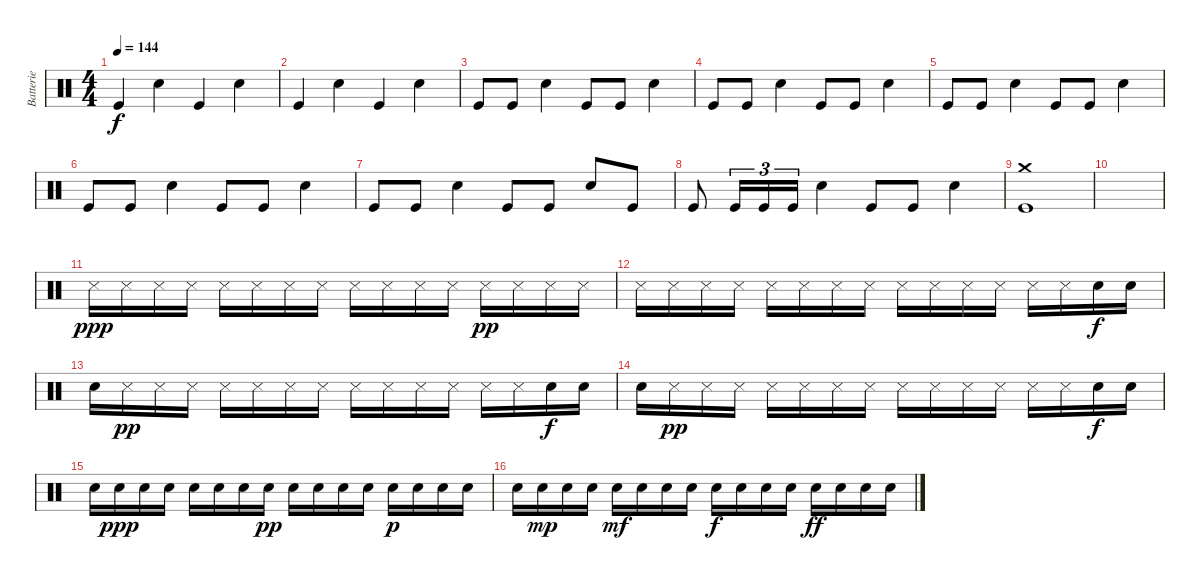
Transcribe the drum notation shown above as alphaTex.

\track ("Batterie" "Batterie") {instrument percussion}
\staff {score}
\articulation defaults
\ts (4 4)
\tempo 144
\clef neutral
\ks c "Kick (hit)".4{dy f} "Electric Snare (hit)".4 "Kick (hit)".4 "Electric Snare (hit)".4
|
"Kick (hit)".4 "Electric Snare (hit)".4 "Kick (hit)".4 "Electric Snare (hit)".4 |
"Kick (hit)".8 "Kick (hit)".8 "Electric Snare (hit)".4 "Kick (hit)".8 "Kick (hit)".8 "Electric Snare (hit)".4 |
"Kick (hit)".8 "Kick (hit)".8 "Electric Snare (hit)".4 "Kick (hit)".8 "Kick (hit)".8 "Electric Snare (hit)".4 |
"Kick (hit)".8 "Kick (hit)".8 "Electric Snare (hit)".4 "Kick (hit)".8 "Kick (hit)".8 "Electric Snare (hit)".4 |
"Kick (hit)".8 "Kick (hit)".8 "Electric Snare (hit)".4 "Kick (hit)".8 "Kick (hit)".8 "Electric Snare (hit)".4 |
"Kick (hit)".8 "Kick (hit)".8 "Electric Snare (hit)".4 "Kick (hit)".8 "Kick (hit)".8 "Electric Snare (hit)".8 "Kick (hit)".8 |
"Kick (hit)".8 "Kick (hit)".16{tu (3 2)} "Kick (hit)".16{tu (3 2)} "Kick (hit)".16{tu (3 2)} "Electric Snare (hit)".4 "Kick (hit)".8 "Kick (hit)".8 "Electric Snare (hit)".4 |
("Crash medium (hit)" "Kick (hit)").1 |
|
"Snare (side stick) 3".16{dy ppp} "Snare (side stick) 3".16 "Snare (side stick) 3".16 "Snare (side stick) 3".16 "Snare (side stick) 3".16 "Snare (side stick) 3".16 "Snare (side stick) 3".16 "Snare (side stick) 3".16 "Snare (side stick) 3".16 "Snare (side stick) 3".16 "Snare (side stick) 3".16 "Snare (side stick) 3".16 "Snare (side stick) 3".16{dy pp} "Snare (side stick) 3".16 "Snare (side stick) 3".16 "Snare (side stick) 3".16 |
"Snare (side stick) 3".16 "Snare (side stick) 3".16 "Snare (side stick) 3".16 "Snare (side stick) 3".16 "Snare (side stick) 3".16 "Snare (side stick) 3".16 "Snare (side stick) 3".16 "Snare (side stick) 3".16 "Snare (side stick) 3".16 "Snare (side stick) 3".16 "Snare (side stick) 3".16 "Snare (side stick) 3".16 "Snare (side stick) 3".16 "Snare (side stick) 3".16 "Electric Snare (hit)".16{dy f} "Electric Snare (hit)".16 |
"Electric Snare (hit)".16 "Snare (side stick) 3".16{dy pp} "Snare (side stick) 3".16 "Snare (side stick) 3".16 "Snare (side stick) 3".16 "Snare (side stick) 3".16 "Snare (side stick) 3".16 "Snare (side stick) 3".16 "Snare (side stick) 3".16 "Snare (side stick) 3".16 "Snare (side stick) 3".16 "Snare (side stick) 3".16 "Snare (side stick) 3".16 "Snare (side stick) 3".16 "Electric Snare (hit)".16{dy f} "Electric Snare (hit)".16 |
"Electric Snare (hit)".16 "Snare (side stick) 3".16{dy pp} "Snare (side stick) 3".16 "Snare (side stick) 3".16 "Snare (side stick) 3".16 "Snare (side stick) 3".16 "Snare (side stick) 3".16 "Snare (side stick) 3".16 "Snare (side stick) 3".16 "Snare (side stick) 3".16 "Snare (side stick) 3".16 "Snare (side stick) 3".16 "Snare (side stick) 3".16 "Snare (side stick) 3".16 "Electric Snare (hit)".16{dy f} "Electric Snare (hit)".16 |
"Electric Snare (hit)".16 "Electric Snare (hit)".16{dy ppp} "Electric Snare (hit)".16 "Electric Snare (hit)".16 "Electric Snare (hit)".16 "Electric Snare (hit)".16 "Electric Snare (hit)".16 "Electric Snare (hit)".16{dy pp} "Electric Snare (hit)".16 "Electric Snare (hit)".16 "Electric Snare (hit)".16 "Electric Snare (hit)".16 "Electric Snare (hit)".16{dy p} "Electric Snare (hit)".16 "Electric Snare (hit)".16 "Electric Snare (hit)".16 |
"Electric Snare (hit)".16 "Electric Snare (hit)".16{dy mp} "Electric Snare (hit)".16 "Electric Snare (hit)".16 "Electric Snare (hit)".16{dy mf} "Electric Snare (hit)".16 "Electric Snare (hit)".16 "Electric Snare (hit)".16 "Electric Snare (hit)".16{dy f} "Electric Snare (hit)".16 "Electric Snare (hit)".16 "Electric Snare (hit)".16 "Electric Snare (hit)".16{dy ff} "Electric Snare (hit)".16 "Electric Snare (hit)".16 "Electric Snare (hit)".16
